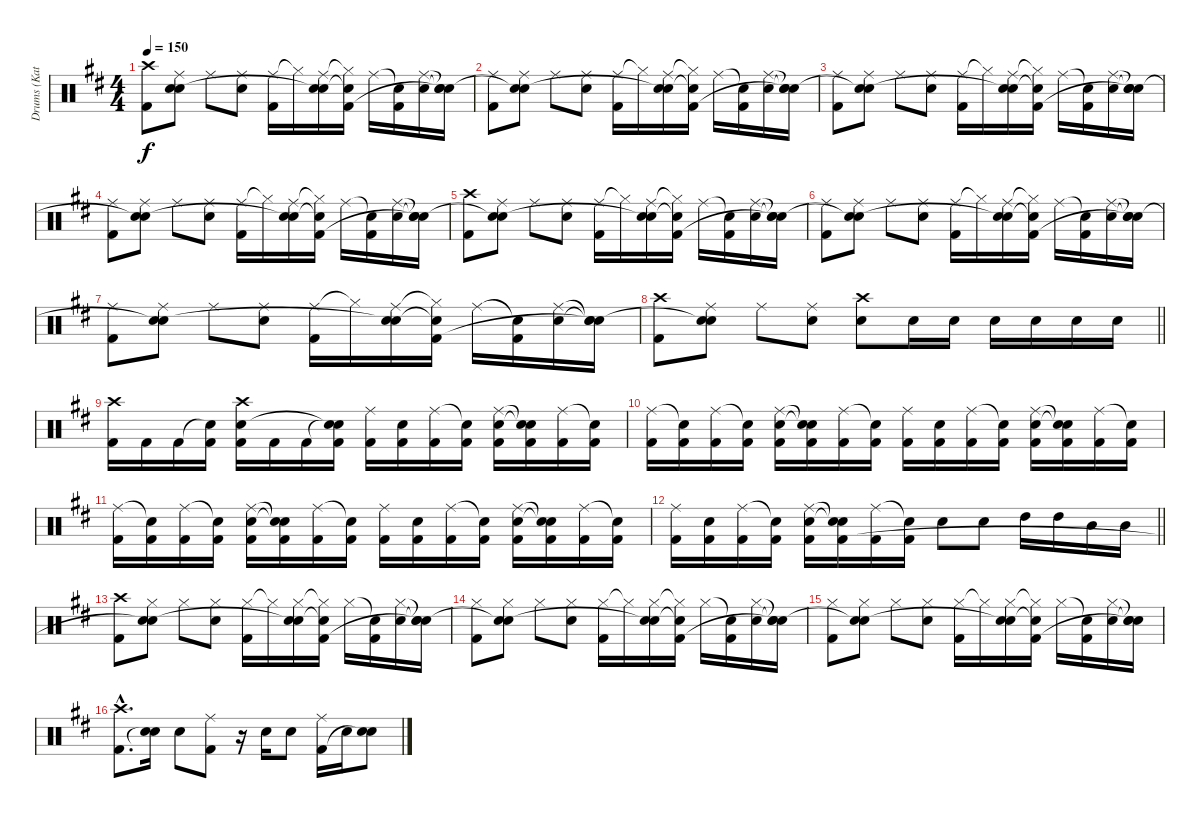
\track ("Drums (Katsuji)" "Drums (Kat") {instrument percussion}
\staff {score}
\articulation defaults
\ts (4 4)
\tempo 150
\clef neutral
\ks d
("Crash high (hit)" "Kick (hit) 2").8{dy f} ("Ride (middle)" "Snare (hit) 2" "Snare (hit)"{t}).8 "Ride (middle)".8 ("Ride (middle)" "Snare (hit) 2").8 ("Ride (middle)" "Kick (hit) 2").16 "Hi-Hat (closed)"{t}.16 ("Ride (middle)" "Snare (hit) 2" "Snare (hit)"{t}).16 ("Hi-Hat (closed)"{t} "Electric Snare (hit)"{t} "Kick (hit) 2").16 "Ride (middle)".16 ("Snare (hit)"{t} "Kick (hit) 2").16 ("Ride (middle)" "Snare (hit) 2").16 ("Snare (hit)"{t} "Snare (hit)"{t} "Snare (hit)"{t}).16 |
("Ride (middle)" "Kick (hit) 2").8 ("Ride (middle)" "Snare (hit) 2" "Snare (hit)"{t}).8 "Ride (middle)".8 ("Ride (middle)" "Snare (hit) 2").8 ("Ride (middle)" "Kick (hit) 2").16 "Hi-Hat (closed)"{t}.16 ("Ride (middle)" "Snare (hit) 2" "Snare (hit)"{t}).16 ("Hi-Hat (closed)"{t} "Electric Snare (hit)"{t} "Kick (hit) 2").16 "Ride (middle)".16 ("Snare (hit)"{t} "Kick (hit) 2").16 ("Ride (middle)" "Snare (hit) 2").16 ("Snare (hit)"{t} "Snare (hit)"{t} "Snare (hit)"{t}).16 |
("Ride (middle)" "Kick (hit) 2").8 ("Ride (middle)" "Snare (hit) 2" "Snare (hit)"{t}).8 "Ride (middle)".8 ("Ride (middle)" "Snare (hit) 2").8 ("Ride (middle)" "Kick (hit) 2").16 "Hi-Hat (closed)"{t}.16 ("Ride (middle)" "Snare (hit) 2" "Snare (hit)"{t}).16 ("Hi-Hat (closed)"{t} "Electric Snare (hit)"{t} "Kick (hit) 2").16 "Ride (middle)".16 ("Snare (hit)"{t} "Kick (hit) 2").16 ("Ride (middle)" "Snare (hit) 2").16 ("Snare (hit)"{t} "Snare (hit)"{t} "Snare (hit)"{t}).16 |
("Ride (middle)" "Kick (hit) 2").8 ("Ride (middle)" "Snare (hit) 2" "Snare (hit)"{t}).8 "Ride (middle)".8 ("Ride (middle)" "Snare (hit) 2").8 ("Ride (middle)" "Kick (hit) 2").16 "Hi-Hat (closed)"{t}.16 ("Ride (middle)" "Snare (hit) 2" "Snare (hit)"{t}).16 ("Hi-Hat (closed)"{t} "Electric Snare (hit)"{t} "Kick (hit) 2").16 "Ride (middle)".16 ("Snare (hit)"{t} "Kick (hit) 2").16 ("Ride (middle)" "Snare (hit) 2").16 ("Snare (hit)"{t} "Snare (hit)"{t} "Snare (hit)"{t}).16 |
("Crash high (hit)" "Kick (hit) 2").8 ("Ride (middle)" "Snare (hit) 2" "Snare (hit)"{t}).8 "Ride (middle)".8 ("Ride (middle)" "Snare (hit) 2").8 ("Ride (middle)" "Kick (hit) 2").16 "Hi-Hat (closed)"{t}.16 ("Ride (middle)" "Snare (hit) 2" "Snare (hit)"{t}).16 ("Hi-Hat (closed)"{t} "Electric Snare (hit)"{t} "Kick (hit) 2").16 "Ride (middle)".16 ("Snare (hit)"{t} "Kick (hit) 2").16 ("Ride (middle)" "Snare (hit) 2").16 ("Snare (hit)"{t} "Snare (hit)"{t} "Snare (hit)"{t}).16 |
("Ride (middle)" "Kick (hit) 2").8 ("Ride (middle)" "Snare (hit) 2" "Snare (hit)"{t}).8 "Ride (middle)".8 ("Ride (middle)" "Snare (hit) 2").8 ("Ride (middle)" "Kick (hit) 2").16 "Hi-Hat (closed)"{t}.16 ("Ride (middle)" "Snare (hit) 2" "Snare (hit)"{t}).16 ("Hi-Hat (closed)"{t} "Electric Snare (hit)"{t} "Kick (hit) 2").16 "Ride (middle)".16 ("Snare (hit)"{t} "Kick (hit) 2").16 ("Ride (middle)" "Snare (hit) 2").16 ("Snare (hit)"{t} "Snare (hit)"{t} "Snare (hit)"{t}).16 |
("Ride (middle)" "Kick (hit) 2").8 ("Ride (middle)" "Snare (hit) 2" "Snare (hit)"{t}).8 "Ride (middle)".8 ("Ride (middle)" "Snare (hit) 2").8 ("Ride (middle)" "Kick (hit) 2").16 "Hi-Hat (closed)"{t}.16 ("Ride (middle)" "Snare (hit) 2" "Snare (hit)"{t}).16 ("Hi-Hat (closed)"{t} "Electric Snare (hit)"{t} "Kick (hit) 2").16 "Ride (middle)".16 ("Snare (hit)"{t} "Kick (hit) 2").16 ("Ride (middle)" "Snare (hit) 2").16 ("Snare (hit)"{t} "Snare (hit)"{t} "Snare (hit)"{t}).16 |
\barLineRight lightlight
("Crash high (hit)" "Kick (hit) 2").8 ("Ride (middle)" "Snare (hit) 2" "Snare (hit)"{t}).8 "Ride (middle)".8 ("Ride (middle)" "Snare (hit) 2").8 ("Crash high (hit)" "Snare (hit) 2").8 "Snare (hit) 2".16 "Snare (hit) 2".16 "Snare (hit) 2".16 "Snare (hit) 2".16 "Snare (hit) 2".16 "Snare (hit) 2".16 |
("Crash high (hit)" "Kick (hit) 2").16 "Kick (hit) 2".16 "Kick (hit) 2".16 ("Snare (hit)"{t} "Kick (hit) 2").16 ("Crash high (hit)" "Snare (hit) 2" "Kick (hit) 2").16 "Kick (hit) 2".16 "Kick (hit) 2".16 ("Snare (hit)"{t} "Snare (hit)"{t} "Kick (hit) 2").16 ("Ride (middle)" "Kick (hit) 2").16 ("Snare (hit) 2" "Kick (hit) 2").16 ("Ride (middle)" "Kick (hit) 2").16 ("Snare (hit)"{t} "Kick (hit) 2").16 ("Ride (middle)" "Snare (hit) 2" "Kick (hit) 2").16 ("Snare (hit)"{t} "Snare (hit)"{t} "Kick (hit) 2").16 ("Ride (middle)" "Kick (hit) 2").16 ("Snare (hit)"{t} "Kick (hit) 2").16 |
("Ride (middle)" "Kick (hit) 2").16 ("Snare (hit)"{t} "Kick (hit) 2").16 ("Ride (middle)" "Kick (hit) 2").16 ("Snare (hit)"{t} "Kick (hit) 2").16 ("Ride (middle)" "Snare (hit) 2" "Kick (hit) 2").16 ("Snare (hit)"{t} "Snare (hit)"{t} "Kick (hit) 2").16 ("Ride (middle)" "Kick (hit) 2").16 ("Snare (hit)"{t} "Kick (hit) 2").16 ("Ride (middle)" "Kick (hit) 2").16 ("Snare (hit) 2" "Kick (hit) 2").16 ("Ride (middle)" "Kick (hit) 2").16 ("Snare (hit)"{t} "Kick (hit) 2").16 ("Ride (middle)" "Snare (hit) 2" "Kick (hit) 2").16 ("Snare (hit)"{t} "Snare (hit)"{t} "Kick (hit) 2").16 ("Ride (middle)" "Kick (hit) 2").16 ("Snare (hit)"{t} "Kick (hit) 2").16 |
("Ride (middle)" "Kick (hit) 2").16 ("Snare (hit)"{t} "Kick (hit) 2").16 ("Ride (middle)" "Kick (hit) 2").16 ("Snare (hit)"{t} "Kick (hit) 2").16 ("Ride (middle)" "Snare (hit) 2" "Kick (hit) 2").16 ("Snare (hit)"{t} "Snare (hit)"{t} "Kick (hit) 2").16 ("Ride (middle)" "Kick (hit) 2").16 ("Snare (hit)"{t} "Kick (hit) 2").16 ("Ride (middle)" "Kick (hit) 2").16 ("Snare (hit) 2" "Kick (hit) 2").16 ("Ride (middle)" "Kick (hit) 2").16 ("Snare (hit)"{t} "Kick (hit) 2").16 ("Ride (middle)" "Snare (hit) 2" "Kick (hit) 2").16 ("Snare (hit)"{t} "Snare (hit)"{t} "Kick (hit) 2").16 ("Ride (middle)" "Kick (hit) 2").16 ("Snare (hit)"{t} "Kick (hit) 2").16 |
\barLineRight lightlight
("Ride (middle)" "Kick (hit) 2").16 ("Snare (hit) 2" "Kick (hit) 2").16 ("Ride (middle)" "Kick (hit) 2").16 ("Snare (hit)"{t} "Kick (hit) 2").16 ("Ride (middle)" "Snare (hit) 2" "Kick (hit) 2").16 ("Snare (hit)"{t} "Snare (hit)"{t} "Kick (hit) 2").16 ("Ride (middle)" "Kick (hit) 2").16 ("Snare (hit)"{t} "Kick (hit) 2").16 "Snare (hit) 2".8 "Snare (hit) 2".8 "High Tom (hit)".16 "High Tom (hit)".16 "Mid Tom (hit)".16 "Mid Tom (hit)".16 |
("Crash high (hit)" "Kick (hit) 2").8 ("Hi-Hat (closed)" "Snare (hit) 2" "Snare (hit)"{t}).8 "Hi-Hat (closed)".8 ("Hi-Hat (closed)" "Snare (hit) 2").8 ("Hi-Hat (closed)" "Kick (hit) 2").16 "Hi-Hat (closed)"{t}.16 ("Hi-Hat (closed)" "Snare (hit) 2" "Snare (hit)"{t}).16 ("Hi-Hat (closed)"{t} "Electric Snare (hit)"{t} "Kick (hit) 2").16 "Hi-Hat (closed)".16 ("Snare (hit)"{t} "Kick (hit) 2").16 ("Hi-Hat (closed)" "Snare (hit) 2").16 ("Snare (hit)"{t} "Snare (hit)"{t} "Snare (hit)"{t}).16 |
("Hi-Hat (closed)" "Kick (hit) 2").8 ("Hi-Hat (closed)" "Snare (hit) 2" "Snare (hit)"{t}).8 "Hi-Hat (closed)".8 ("Hi-Hat (closed)" "Snare (hit) 2").8 ("Hi-Hat (closed)" "Kick (hit) 2").16 "Hi-Hat (closed)"{t}.16 ("Hi-Hat (closed)" "Snare (hit) 2" "Snare (hit)"{t}).16 ("Hi-Hat (closed)"{t} "Electric Snare (hit)"{t} "Kick (hit) 2").16 "Hi-Hat (closed)".16 ("Snare (hit)"{t} "Kick (hit) 2").16 ("Hi-Hat (closed)" "Snare (hit) 2").16 ("Snare (hit)"{t} "Snare (hit)"{t} "Snare (hit)"{t}).16 |
("Hi-Hat (closed)" "Kick (hit) 2").8 ("Hi-Hat (closed)" "Snare (hit) 2" "Snare (hit)"{t}).8 "Hi-Hat (closed)".8 ("Hi-Hat (closed)" "Snare (hit) 2").8 ("Hi-Hat (closed)" "Kick (hit) 2").16 "Hi-Hat (closed)"{t}.16 ("Hi-Hat (closed)" "Snare (hit) 2" "Snare (hit)"{t}).16 ("Hi-Hat (closed)"{t} "Electric Snare (hit)"{t} "Kick (hit) 2").16 "Hi-Hat (closed)".16 ("Snare (hit)"{t} "Kick (hit) 2").16 ("Hi-Hat (closed)" "Snare (hit) 2").16 ("Snare (hit)"{t} "Snare (hit)"{t} "Snare (hit)"{t}).16 |
("Crash high (hit)"{hac} "Kick (hit) 2"{hac}).8{d} ("Snare (hit) 2" "Snare (hit)"{t}).16 "Snare (hit) 2".8 ("Ride (middle)" "Kick (hit) 2").8 r.16 "Snare (hit) 2".16 "Snare (hit) 2".8 ("Ride (middle)" "Kick (hit) 2").16 "Snare (hit) 2".16 ("Snare (hit) 2" "Snare (hit)"{t}).8
